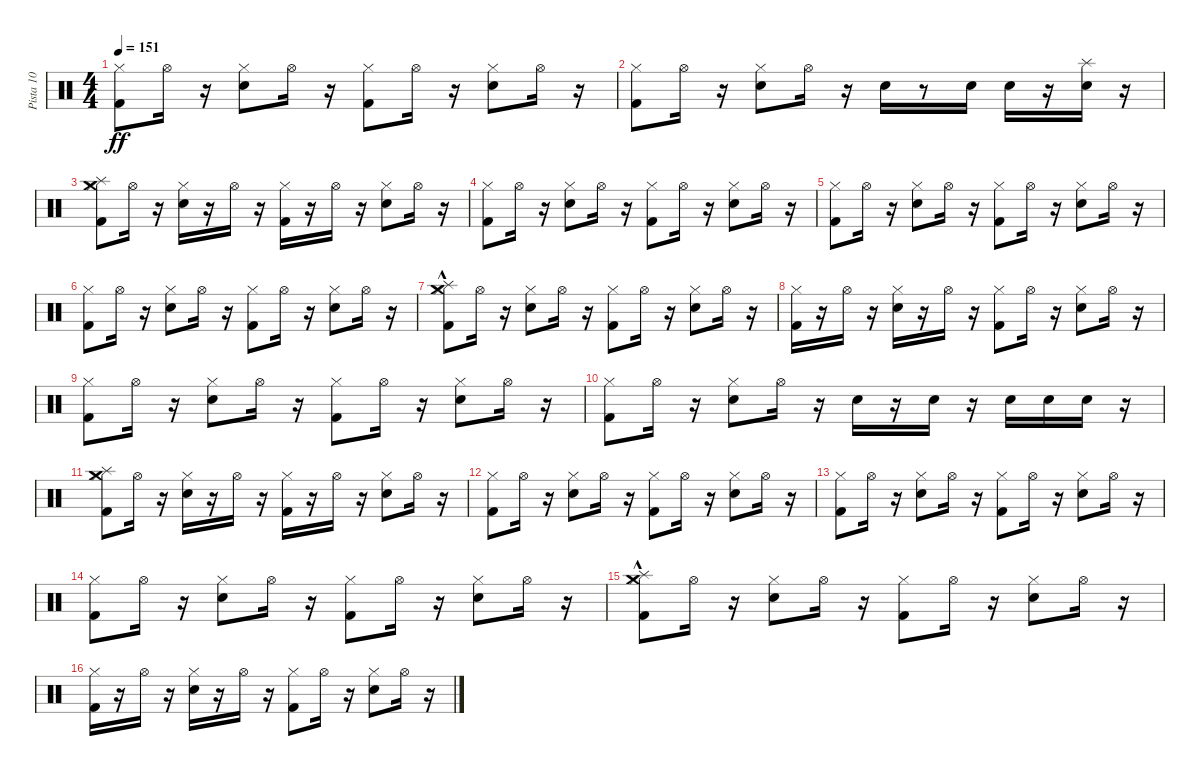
\track ("Pista 10" "Pista 10") {instrument percussion}
\staff {score}
\articulation defaults
\ts (4 4)
\tempo 151
\clef neutral
\ks c
("Kick (hit) 2" "Hi-Hat (closed)").8{dy ff} "Hi-Hat (open)".16 r.16 ("Snare (hit) 2" "Hi-Hat (closed)").8 "Hi-Hat (open)".16 r.16 ("Kick (hit) 2" "Hi-Hat (closed)").8 "Hi-Hat (open)".16 r.16 ("Hi-Hat (closed)" "Snare (hit) 2").8 "Hi-Hat (open)".16 r.16 |
("Hi-Hat (closed)" "Kick (hit) 2").8 "Hi-Hat (open)".16 r.16 ("Hi-Hat (closed)" "Snare (hit) 2").8 "Hi-Hat (open)".16 r.16 "Snare (hit) 2".16 r.8 "Snare (hit) 2".16 "Snare (hit) 2".16 r.16 ("Snare (hit) 2" "Splash (hit)").16 r.16 |
("Kick (hit) 2" "Hi-Hat (closed)" "Splash (hit)" "Crash medium (hit)").8 "Hi-Hat (open)".16 r.16 ("Snare (hit) 2" "Hi-Hat (closed)").16 r.16 "Hi-Hat (open)".16 r.16 ("Kick (hit) 2" "Hi-Hat (closed)").16 r.16 "Hi-Hat (open)".16 r.16 ("Snare (hit) 2" "Hi-Hat (closed)").8 "Hi-Hat (open)".16 r.16 |
("Kick (hit) 2" "Hi-Hat (closed)").8 "Hi-Hat (open)".16 r.16 ("Hi-Hat (closed)" "Snare (hit) 2").8 "Hi-Hat (open)".16 r.16 ("Hi-Hat (closed)" "Kick (hit) 2").8 "Hi-Hat (open)".16 r.16 ("Hi-Hat (closed)" "Snare (hit) 2").8 "Hi-Hat (open)".16 r.16 |
("Kick (hit) 2" "Hi-Hat (closed)").8 "Hi-Hat (open)".16 r.16 ("Snare (hit) 2" "Hi-Hat (closed)").8 "Hi-Hat (open)".16 r.16 ("Kick (hit) 2" "Hi-Hat (closed)").8 "Hi-Hat (open)".16 r.16 ("Snare (hit) 2" "Hi-Hat (closed)").8 "Hi-Hat (open)".16 r.16 |
("Kick (hit) 2" "Hi-Hat (closed)").8 "Hi-Hat (open)".16 r.16 ("Snare (hit) 2" "Hi-Hat (closed)").8 "Hi-Hat (open)".16 r.16 ("Kick (hit) 2" "Hi-Hat (closed)").8 "Hi-Hat (open)".16 r.16 ("Hi-Hat (closed)" "Snare (hit) 2").8 "Hi-Hat (open)".16 r.16 |
("Splash (hit)"{hac} "Crash medium (hit)"{hac} "Hi-Hat (closed)" "Kick (hit) 2").8 "Hi-Hat (open)".16 r.16 ("Hi-Hat (closed)" "Snare (hit) 2").8 "Hi-Hat (open)".16 r.16 ("Kick (hit) 2" "Hi-Hat (closed)").8 "Hi-Hat (open)".16 r.16 ("Snare (hit) 2" "Hi-Hat (closed)").8 "Hi-Hat (open)".16 r.16 |
("Kick (hit) 2" "Hi-Hat (closed)").16 r.16 "Hi-Hat (open)".16 r.16 ("Snare (hit) 2" "Hi-Hat (closed)").16 r.16 "Hi-Hat (open)".16 r.16 ("Kick (hit) 2" "Hi-Hat (closed)").8 "Hi-Hat (open)".16 r.16 ("Snare (hit) 2" "Hi-Hat (closed)").8 "Hi-Hat (open)".16 r.16 |
("Kick (hit) 2" "Hi-Hat (closed)").8 "Hi-Hat (open)".16 r.16 ("Hi-Hat (closed)" "Snare (hit) 2").8 "Hi-Hat (open)".16 r.16 ("Hi-Hat (closed)" "Kick (hit) 2").8 "Hi-Hat (open)".16 r.16 ("Hi-Hat (closed)" "Snare (hit) 2").8 "Hi-Hat (open)".16 r.16 |
("Kick (hit) 2" "Hi-Hat (closed)").8 "Hi-Hat (open)".16 r.16 ("Snare (hit) 2" "Hi-Hat (closed)").8 "Hi-Hat (open)".16 r.16 "Snare (hit) 2".16 r.16 "Snare (hit) 2".16 r.16 "Snare (hit) 2".16 "Snare (hit) 2".16 "Snare (hit) 2".16 r.16 |
("Splash (hit)" "Crash medium (hit)" "Kick (hit) 2" "Hi-Hat (closed)").8 "Hi-Hat (open)".16 r.16 ("Snare (hit) 2" "Hi-Hat (closed)").16 r.16 "Hi-Hat (open)".16 r.16 ("Kick (hit) 2" "Hi-Hat (closed)").16 r.16 "Hi-Hat (open)".16 r.16 ("Hi-Hat (closed)" "Snare (hit) 2").8 "Hi-Hat (open)".16 r.16 |
("Hi-Hat (closed)" "Kick (hit) 2").8 "Hi-Hat (open)".16 r.16 ("Hi-Hat (closed)" "Snare (hit) 2").8 "Hi-Hat (open)".16 r.16 ("Kick (hit) 2" "Hi-Hat (closed)").8 "Hi-Hat (open)".16 r.16 ("Snare (hit) 2" "Hi-Hat (closed)").8 "Hi-Hat (open)".16 r.16 |
("Kick (hit) 2" "Hi-Hat (closed)").8 "Hi-Hat (open)".16 r.16 ("Snare (hit) 2" "Hi-Hat (closed)").8 "Hi-Hat (open)".16 r.16 ("Kick (hit) 2" "Hi-Hat (closed)").8 "Hi-Hat (open)".16 r.16 ("Snare (hit) 2" "Hi-Hat (closed)").8 "Hi-Hat (open)".16 r.16 |
("Kick (hit) 2" "Hi-Hat (closed)").8 "Hi-Hat (open)".16 r.16 ("Hi-Hat (closed)" "Snare (hit) 2").8 "Hi-Hat (open)".16 r.16 ("Hi-Hat (closed)" "Kick (hit) 2").8 "Hi-Hat (open)".16 r.16 ("Hi-Hat (closed)" "Snare (hit) 2").8 "Hi-Hat (open)".16 r.16 |
("Crash medium (hit)"{hac} "Splash (hit)"{hac} "Kick (hit) 2" "Hi-Hat (closed)").8 "Hi-Hat (open)".16 r.16 ("Snare (hit) 2" "Hi-Hat (closed)").8 "Hi-Hat (open)".16 r.16 ("Kick (hit) 2" "Hi-Hat (closed)").8 "Hi-Hat (open)".16 r.16 ("Snare (hit) 2" "Hi-Hat (closed)").8 "Hi-Hat (open)".16 r.16 |
("Kick (hit) 2" "Hi-Hat (closed)").16 r.16 "Hi-Hat (open)".16 r.16 ("Snare (hit) 2" "Hi-Hat (closed)").16 r.16 "Hi-Hat (open)".16 r.16 ("Kick (hit) 2" "Hi-Hat (closed)").8 "Hi-Hat (open)".16 r.16 ("Snare (hit) 2" "Hi-Hat (closed)").8 "Hi-Hat (open)".16 r.16
